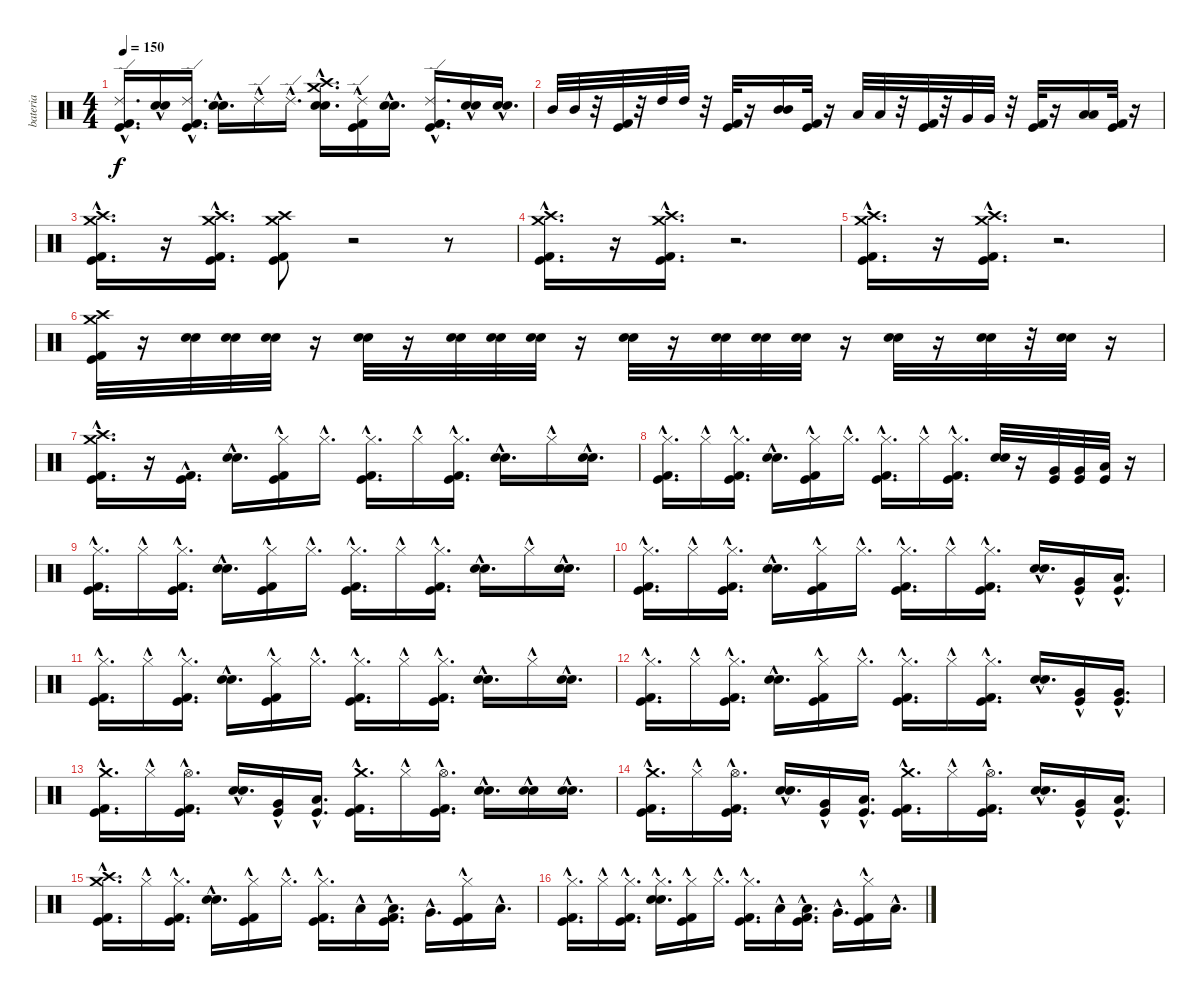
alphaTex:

\track ("bateria" "bateria") {instrument percussion}
\staff {score}
\articulation defaults
\ts (4 4)
\tempo 150
\clef neutral
\ks c
("Ride (edge) 2"{hac} "Kick (hit) 2"{hac} "Kick (hit)"{hac}).16{d dy f} ("Electric Snare (hit)"{hac} "Snare (hit) 2"{hac}).16 ("Ride (edge) 2"{hac} "Kick (hit) 2"{hac} "Kick (hit)"{hac}).16{d} ("Electric Snare (hit)"{hac} "Snare (hit) 2"{hac}).16{d} "Ride (edge) 2"{hac}.16 "Ride (edge) 2"{hac}.16{d} ("Crash medium (hit)"{hac} "Crash high (hit)"{hac} "Electric Snare (hit)"{hac} "Snare (hit) 2"{hac}).16{d} ("Kick (hit) 2"{hac} "Kick (hit)"{hac} "Ride (edge) 2"{hac}).16 ("Electric Snare (hit)"{hac} "Snare (hit) 2"{hac}).16{d} ("Kick (hit) 2"{hac} "Kick (hit)"{hac} "Ride (edge) 2"{hac}).16{d} ("Electric Snare (hit)"{hac} "Snare (hit) 2"{hac}).16 ("Snare (hit) 2"{hac} "Electric Snare (hit)"{hac}).16{d} |
"Mid Tom (hit)".32 "Mid Tom (hit)".32 r.32 ("Kick (hit) 2" "Kick (hit)").32 r.32 "High Tom (hit)".32 "High Tom (hit)".32 r.32 ("Kick (hit) 2" "Kick (hit)").32 r.16 ("Mid Tom (hit)" "Mid Tom (hit)").16 ("Kick (hit) 2" "Kick (hit)").32 r.16 "Low Tom (hit)".32 "Low Tom (hit)".32 r.32 ("Kick (hit) 2" "Kick (hit)").32 r.32 "Very Low Tom (hit)".32 "Very Low Tom (hit)".32 r.32 ("Kick (hit)" "Kick (hit) 2").32 r.16 ("Low Floor Tom (hit)" "Low Floor Tom (hit)").16 ("Kick (hit) 2" "Kick (hit)").32 r.16 |
("Crash high (hit)"{hac} "Crash medium (hit)"{hac} "Kick (hit) 2"{hac} "Kick (hit)"{hac}).16{d} r.16 ("Crash high (hit)"{hac} "Crash medium (hit)"{hac} "Kick (hit) 2"{hac} "Kick (hit)"{hac}).16{d} ("Crash high (hit)" "Crash medium (hit)" "Kick (hit) 2" "Kick (hit)").8 r.2 r.8 |
("Crash high (hit)"{hac} "Crash medium (hit)"{hac} "Kick (hit) 2"{hac} "Kick (hit)"{hac}).16{d} r.16 ("Crash high (hit)"{hac} "Crash medium (hit)"{hac} "Kick (hit) 2"{hac} "Kick (hit)"{hac}).16{d} r.2{d} |
("Crash high (hit)"{hac} "Crash medium (hit)"{hac} "Kick (hit) 2"{hac} "Kick (hit)"{hac}).16{d} r.16 ("Crash high (hit)"{hac} "Crash medium (hit)"{hac} "Kick (hit) 2"{hac} "Kick (hit)"{hac}).16{d} r.2{d} |
("Kick (hit) 2" "Kick (hit)" "Crash high (hit)" "Crash medium (hit)").32 r.16 ("Electric Snare (hit)" "Snare (hit) 2").32 ("Electric Snare (hit)" "Snare (hit) 2").32 ("Electric Snare (hit)" "Snare (hit) 2").32 r.16 ("Electric Snare (hit)" "Snare (hit) 2").32 r.16 ("Electric Snare (hit)" "Snare (hit) 2").32 ("Electric Snare (hit)" "Snare (hit) 2").32 ("Electric Snare (hit)" "Snare (hit) 2").32 r.16 ("Electric Snare (hit)" "Snare (hit) 2").32 r.16 ("Electric Snare (hit)" "Snare (hit) 2").32 ("Electric Snare (hit)" "Snare (hit) 2").32 ("Electric Snare (hit)" "Snare (hit) 2").32 r.16 ("Electric Snare (hit)" "Snare (hit) 2").32 r.16 ("Electric Snare (hit)" "Snare (hit) 2").32 r.32 ("Electric Snare (hit)" "Snare (hit) 2").32 r.16 |
("Crash high (hit)"{hac} "Crash medium (hit)"{hac} "Kick (hit) 2"{hac} "Kick (hit)"{hac}).16{d} r.16 ("Kick (hit) 2"{hac} "Kick (hit)"{hac}).16{d} ("Electric Snare (hit)"{hac} "Snare (hit) 2"{hac}).16{d} ("Kick (hit) 2"{hac} "Kick (hit)"{hac} "Hi-Hat (closed)"{hac}).16 "Hi-Hat (closed)"{hac}.16{d} ("Kick (hit) 2"{hac} "Kick (hit)"{hac} "Hi-Hat (closed)"{hac}).16{d} "Hi-Hat (closed)"{hac}.16 ("Kick (hit) 2"{hac} "Kick (hit)"{hac} "Hi-Hat (closed)"{hac}).16{d} ("Electric Snare (hit)"{hac} "Snare (hit) 2"{hac}).16{d} "Hi-Hat (closed)"{hac}.16 ("Electric Snare (hit)"{hac} "Snare (hit) 2"{hac}).16{d} |
("Kick (hit) 2"{hac} "Kick (hit)"{hac} "Hi-Hat (closed)"{hac}).16{d} "Hi-Hat (closed)"{hac}.16 ("Kick (hit) 2"{hac} "Kick (hit)"{hac} "Hi-Hat (closed)"{hac}).16{d} ("Electric Snare (hit)"{hac} "Snare (hit) 2"{hac}).16{d} ("Kick (hit)"{hac} "Kick (hit) 2"{hac} "Hi-Hat (closed)"{hac}).16 "Hi-Hat (closed)"{hac}.16{d} ("Kick (hit) 2"{hac} "Kick (hit)"{hac} "Hi-Hat (closed)"{hac}).16{d} "Hi-Hat (closed)"{hac}.16 ("Kick (hit) 2"{hac} "Kick (hit)"{hac} "Hi-Hat (closed)"{hac}).16{d} ("Electric Snare (hit)" "Snare (hit) 2").32 r.16 ("Kick (hit)" "Very Low Tom (hit)").32 ("Kick (hit)" "Very Low Tom (hit)").32 ("Kick (hit)" "Low Floor Tom (hit)").32 r.16 |
("Kick (hit) 2"{hac} "Kick (hit)"{hac} "Hi-Hat (closed)"{hac}).16{d} "Hi-Hat (closed)"{hac}.16 ("Kick (hit) 2"{hac} "Kick (hit)"{hac} "Hi-Hat (closed)"{hac}).16{d} ("Snare (hit) 2"{hac} "Electric Snare (hit)"{hac}).16{d} ("Kick (hit)"{hac} "Kick (hit) 2"{hac} "Hi-Hat (closed)"{hac}).16 "Hi-Hat (closed)"{hac}.16{d} ("Kick (hit) 2"{hac} "Kick (hit)"{hac} "Hi-Hat (closed)"{hac}).16{d} "Hi-Hat (closed)"{hac}.16 ("Kick (hit) 2"{hac} "Kick (hit)"{hac} "Hi-Hat (closed)"{hac}).16{d} ("Electric Snare (hit)"{hac} "Snare (hit) 2"{hac}).16{d} "Hi-Hat (closed)"{hac}.16 ("Electric Snare (hit)"{hac} "Snare (hit) 2"{hac}).16{d} |
("Kick (hit) 2"{hac} "Kick (hit)"{hac} "Hi-Hat (closed)"{hac}).16{d} "Hi-Hat (closed)"{hac}.16 ("Kick (hit) 2"{hac} "Kick (hit)"{hac} "Hi-Hat (closed)"{hac}).16{d} ("Snare (hit) 2"{hac} "Electric Snare (hit)"{hac}).16{d} ("Kick (hit)"{hac} "Kick (hit) 2"{hac} "Hi-Hat (closed)"{hac}).16 "Hi-Hat (closed)"{hac}.16{d} ("Kick (hit) 2"{hac} "Kick (hit)"{hac} "Hi-Hat (closed)"{hac}).16{d} "Hi-Hat (closed)"{hac}.16 ("Kick (hit) 2"{hac} "Kick (hit)"{hac} "Hi-Hat (closed)"{hac}).16{d} ("Electric Snare (hit)"{hac} "Snare (hit) 2"{hac}).16{d} ("Kick (hit)"{hac} "Very Low Tom (hit)"{hac}).16 ("Kick (hit)"{hac} "Low Floor Tom (hit)"{hac}).16{d} |
("Kick (hit) 2"{hac} "Kick (hit)"{hac} "Hi-Hat (closed)"{hac}).16{d} "Hi-Hat (closed)"{hac}.16 ("Kick (hit) 2"{hac} "Kick (hit)"{hac} "Hi-Hat (closed)"{hac}).16{d} ("Snare (hit) 2"{hac} "Electric Snare (hit)"{hac}).16{d} ("Kick (hit)"{hac} "Kick (hit) 2"{hac} "Hi-Hat (closed)"{hac}).16 "Hi-Hat (closed)"{hac}.16{d} ("Kick (hit) 2"{hac} "Kick (hit)"{hac} "Hi-Hat (closed)"{hac}).16{d} "Hi-Hat (closed)"{hac}.16 ("Kick (hit) 2"{hac} "Kick (hit)"{hac} "Hi-Hat (closed)"{hac}).16{d} ("Electric Snare (hit)"{hac} "Snare (hit) 2"{hac}).16{d} "Hi-Hat (closed)"{hac}.16 ("Electric Snare (hit)"{hac} "Snare (hit) 2"{hac}).16{d} |
("Kick (hit) 2"{hac} "Kick (hit)"{hac} "Hi-Hat (closed)"{hac}).16{d} "Hi-Hat (closed)"{hac}.16 ("Kick (hit) 2"{hac} "Kick (hit)"{hac} "Hi-Hat (closed)"{hac}).16{d} ("Snare (hit) 2"{hac} "Electric Snare (hit)"{hac}).16{d} ("Kick (hit)"{hac} "Kick (hit) 2"{hac} "Hi-Hat (closed)"{hac}).16 "Hi-Hat (closed)"{hac}.16{d} ("Kick (hit) 2"{hac} "Kick (hit)"{hac} "Hi-Hat (closed)"{hac}).16{d} "Hi-Hat (closed)"{hac}.16 ("Kick (hit) 2"{hac} "Kick (hit)"{hac} "Hi-Hat (closed)"{hac}).16{d} ("Electric Snare (hit)"{hac} "Snare (hit) 2"{hac}).16{d} ("Kick (hit)"{hac} "Very Low Tom (hit)"{hac}).16 ("Kick (hit)"{hac} "Very Low Tom (hit)"{hac}).16{d} |
("Crash medium (hit)"{hac} "Kick (hit) 2"{hac} "Kick (hit)"{hac}).16{d} "Hi-Hat (closed)"{hac}.16 ("Hi-Hat (open)"{hac} "Kick (hit) 2"{hac} "Kick (hit)"{hac}).16{d} ("Snare (hit) 2"{hac} "Electric Snare (hit)"{hac}).16{d} ("Very Low Tom (hit)"{hac} "Kick (hit)"{hac}).16 ("Low Floor Tom (hit)"{hac} "Kick (hit)"{hac}).16{d} ("Crash medium (hit)"{hac} "Kick (hit) 2"{hac} "Kick (hit)"{hac}).16{d} "Hi-Hat (closed)"{hac}.16 ("Hi-Hat (open)"{hac} "Kick (hit) 2"{hac} "Kick (hit)"{hac}).16{d} ("Electric Snare (hit)"{hac} "Snare (hit) 2"{hac}).16{d} ("Electric Snare (hit)"{hac} "Snare (hit) 2"{hac}).16 ("Electric Snare (hit)"{hac} "Snare (hit) 2"{hac}).16{d} |
("Crash medium (hit)"{hac} "Kick (hit) 2"{hac} "Kick (hit)"{hac}).16{d} "Hi-Hat (closed)"{hac}.16 ("Hi-Hat (open)"{hac} "Kick (hit) 2"{hac} "Kick (hit)"{hac}).16{d} ("Snare (hit) 2"{hac} "Electric Snare (hit)"{hac}).16{d} ("Very Low Tom (hit)"{hac} "Kick (hit)"{hac}).16 ("Low Floor Tom (hit)"{hac} "Kick (hit)"{hac}).16{d} ("Crash medium (hit)"{hac} "Kick (hit) 2"{hac} "Kick (hit)"{hac}).16{d} "Hi-Hat (closed)"{hac}.16 ("Hi-Hat (open)"{hac} "Kick (hit) 2"{hac} "Kick (hit)"{hac}).16{d} ("Snare (hit) 2"{hac} "Electric Snare (hit)"{hac}).16{d} ("Very Low Tom (hit)"{hac} "Kick (hit)"{hac}).16 ("Low Floor Tom (hit)"{hac} "Kick (hit)"{hac}).16{d} |
("Crash high (hit)"{hac} "Crash medium (hit)"{hac} "Kick (hit) 2"{hac} "Kick (hit)"{hac}).16{d} "Hi-Hat (closed)"{hac}.16 ("Kick (hit) 2"{hac} "Kick (hit)"{hac} "Hi-Hat (closed)"{hac}).16{d} ("Snare (hit) 2"{hac} "Electric Snare (hit)"{hac}).16{d} ("Kick (hit) 2"{hac} "Kick (hit)"{hac} "Hi-Hat (closed)"{hac}).16 "Hi-Hat (closed)"{hac}.16{d} ("Kick (hit) 2"{hac} "Kick (hit)"{hac} "Hi-Hat (closed)"{hac}).16{d} "Low Tom (hit)"{hac}.16 ("Low Tom (hit)"{hac} "Kick (hit) 2"{hac} "Kick (hit)"{hac}).16{d} "Very Low Tom (hit)"{hac}.16{d} ("Kick (hit) 2"{hac} "Kick (hit)"{hac} "Hi-Hat (closed)"{hac}).16 "Low Floor Tom (hit)"{hac}.16{d} |
("Kick (hit) 2"{hac} "Kick (hit)"{hac} "Hi-Hat (closed)"{hac}).16{d} "Hi-Hat (closed)"{hac}.16 ("Kick (hit) 2"{hac} "Kick (hit)"{hac} "Hi-Hat (closed)"{hac}).16{d} ("Electric Snare (hit)"{hac} "Snare (hit) 2"{hac} "Hi-Hat (closed)"{hac}).16{d} ("Kick (hit) 2"{hac} "Kick (hit)"{hac} "Hi-Hat (closed)"{hac}).16 "Hi-Hat (closed)"{hac}.16{d} ("Kick (hit) 2"{hac} "Kick (hit)"{hac} "Hi-Hat (closed)"{hac}).16{d} "Low Tom (hit)"{hac}.16 ("Low Tom (hit)"{hac} "Kick (hit) 2"{hac} "Kick (hit)"{hac}).16{d} "Very Low Tom (hit)"{hac}.16{d} ("Kick (hit) 2"{hac} "Kick (hit)"{hac} "Hi-Hat (closed)"{hac}).16 "Low Floor Tom (hit)"{hac}.16{d}
